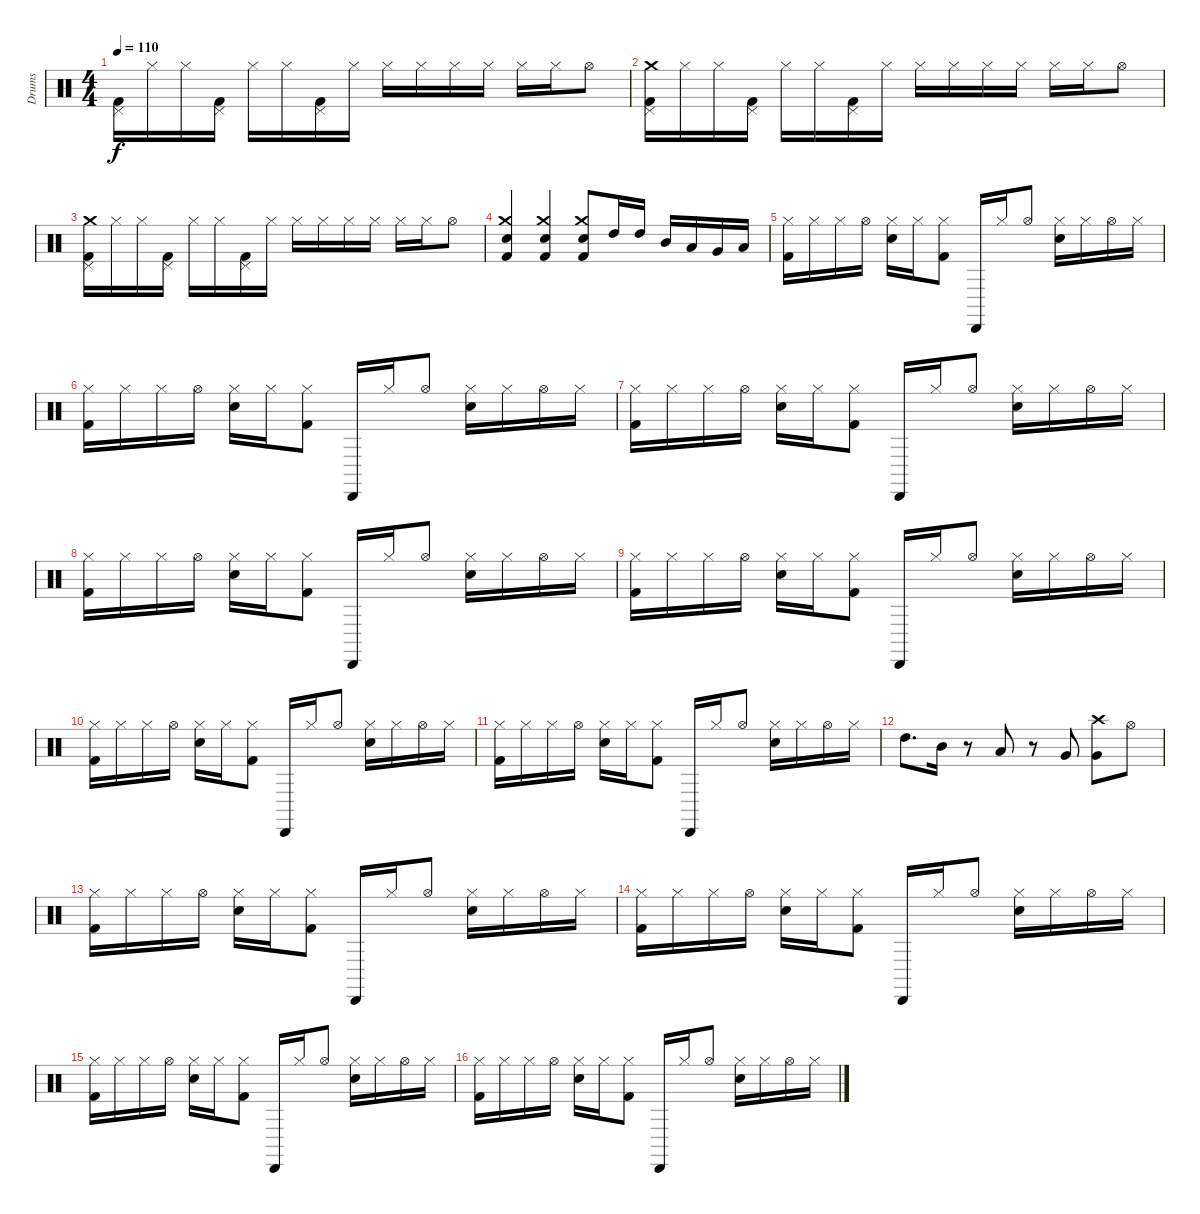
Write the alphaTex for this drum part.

\track ("Drums" "Drums") {instrument percussion}
\staff {score}
\articulation defaults
\ts (4 4)
\tempo 110
\clef neutral
\ks c
("Kick (hit) 2" "Pedal Hi-Hat (hit)").16{dy f} "Hi-Hat (closed)".16 "Hi-Hat (closed)".16 ("Kick (hit) 2" "Pedal Hi-Hat (hit)").16 "Hi-Hat (closed)".16 "Hi-Hat (closed)".16 ("Kick (hit) 2" "Pedal Hi-Hat (hit)").16 "Hi-Hat (closed)".16 "Hi-Hat (closed)".16 "Hi-Hat (closed)".16 "Hi-Hat (closed)".16 "Hi-Hat (closed)".16 "Hi-Hat (closed)".16 "Hi-Hat (closed)".16 "Hi-Hat (open)".8 |
("Kick (hit) 2" "Pedal Hi-Hat (hit)" "Crash medium (hit)").16 "Hi-Hat (closed)".16 "Hi-Hat (closed)".16 ("Kick (hit) 2" "Pedal Hi-Hat (hit)").16 "Hi-Hat (closed)".16 "Hi-Hat (closed)".16 ("Kick (hit) 2" "Pedal Hi-Hat (hit)").16 "Hi-Hat (closed)".16 "Hi-Hat (closed)".16 "Hi-Hat (closed)".16 "Hi-Hat (closed)".16 "Hi-Hat (closed)".16 "Hi-Hat (closed)".16 "Hi-Hat (closed)".16 "Hi-Hat (open)".8 |
("Kick (hit) 2" "Pedal Hi-Hat (hit)" "Crash medium (hit)").16 "Hi-Hat (closed)".16 "Hi-Hat (closed)".16 ("Kick (hit) 2" "Pedal Hi-Hat (hit)").16 "Hi-Hat (closed)".16 "Hi-Hat (closed)".16 ("Kick (hit) 2" "Pedal Hi-Hat (hit)").16 "Hi-Hat (closed)".16 "Hi-Hat (closed)".16 "Hi-Hat (closed)".16 "Hi-Hat (closed)".16 "Hi-Hat (closed)".16 "Hi-Hat (closed)".16 "Hi-Hat (closed)".16 "Hi-Hat (open)".8 |
("Kick (hit) 2" "Electric Snare (hit)" "Crash medium (hit)").4 ("Kick (hit) 2" "Electric Snare (hit)" "Crash medium (hit)").4 ("Kick (hit) 2" "Electric Snare (hit)" "Crash medium (hit)").8 "High Tom (hit)".16 "High Tom (hit)".16 "Mid Tom (hit)".16 "Low Tom (hit)".16 "Very Low Tom (hit)".16 "Low Floor Tom (hit)".16 |
("Kick (hit) 2" "Hi-Hat (closed)").16 "Hi-Hat (closed)".16 "Hi-Hat (closed)".16 "Hi-Hat (open)".16 ("Snare (hit) 2" "Hi-Hat (closed)").16 "Hi-Hat (closed)".16 ("Kick (hit) 2" "Hi-Hat (closed)").8 "Cabasa (hit)".16 "Hi-Hat (closed)".16 "Hi-Hat (open)".8 ("Snare (hit) 2" "Hi-Hat (closed)").16 "Hi-Hat (closed)".16 "Hi-Hat (open)".16 "Hi-Hat (closed)".16 |
("Kick (hit) 2" "Hi-Hat (closed)").16 "Hi-Hat (closed)".16 "Hi-Hat (closed)".16 "Hi-Hat (open)".16 ("Snare (hit) 2" "Hi-Hat (closed)").16 "Hi-Hat (closed)".16 ("Kick (hit) 2" "Hi-Hat (closed)").8 "Cabasa (hit)".16 "Hi-Hat (closed)".16 "Hi-Hat (open)".8 ("Snare (hit) 2" "Hi-Hat (closed)").16 "Hi-Hat (closed)".16 "Hi-Hat (open)".16 "Hi-Hat (closed)".16 |
("Kick (hit) 2" "Hi-Hat (closed)").16 "Hi-Hat (closed)".16 "Hi-Hat (closed)".16 "Hi-Hat (open)".16 ("Snare (hit) 2" "Hi-Hat (closed)").16 "Hi-Hat (closed)".16 ("Kick (hit) 2" "Hi-Hat (closed)").8 "Cabasa (hit)".16 "Hi-Hat (closed)".16 "Hi-Hat (open)".8 ("Snare (hit) 2" "Hi-Hat (closed)").16 "Hi-Hat (closed)".16 "Hi-Hat (open)".16 "Hi-Hat (closed)".16 |
("Kick (hit) 2" "Hi-Hat (closed)").16 "Hi-Hat (closed)".16 "Hi-Hat (closed)".16 "Hi-Hat (open)".16 ("Snare (hit) 2" "Hi-Hat (closed)").16 "Hi-Hat (closed)".16 ("Kick (hit) 2" "Hi-Hat (closed)").8 "Cabasa (hit)".16 "Hi-Hat (closed)".16 "Hi-Hat (open)".8 ("Snare (hit) 2" "Hi-Hat (closed)").16 "Hi-Hat (closed)".16 "Hi-Hat (open)".16 "Hi-Hat (closed)".16 |
("Kick (hit) 2" "Hi-Hat (closed)").16 "Hi-Hat (closed)".16 "Hi-Hat (closed)".16 "Hi-Hat (open)".16 ("Snare (hit) 2" "Hi-Hat (closed)").16 "Hi-Hat (closed)".16 ("Kick (hit) 2" "Hi-Hat (closed)").8 "Cabasa (hit)".16 "Hi-Hat (closed)".16 "Hi-Hat (open)".8 ("Snare (hit) 2" "Hi-Hat (closed)").16 "Hi-Hat (closed)".16 "Hi-Hat (open)".16 "Hi-Hat (closed)".16 |
("Kick (hit) 2" "Hi-Hat (closed)").16 "Hi-Hat (closed)".16 "Hi-Hat (closed)".16 "Hi-Hat (open)".16 ("Snare (hit) 2" "Hi-Hat (closed)").16 "Hi-Hat (closed)".16 ("Kick (hit) 2" "Hi-Hat (closed)").8 "Cabasa (hit)".16 "Hi-Hat (closed)".16 "Hi-Hat (open)".8 ("Snare (hit) 2" "Hi-Hat (closed)").16 "Hi-Hat (closed)".16 "Hi-Hat (open)".16 "Hi-Hat (closed)".16 |
("Kick (hit) 2" "Hi-Hat (closed)").16 "Hi-Hat (closed)".16 "Hi-Hat (closed)".16 "Hi-Hat (open)".16 ("Snare (hit) 2" "Hi-Hat (closed)").16 "Hi-Hat (closed)".16 ("Kick (hit) 2" "Hi-Hat (closed)").8 "Cabasa (hit)".16 "Hi-Hat (closed)".16 "Hi-Hat (open)".8 ("Snare (hit) 2" "Hi-Hat (closed)").16 "Hi-Hat (closed)".16 "Hi-Hat (open)".16 "Hi-Hat (closed)".16 |
"High Tom (hit)".8{d} "Mid Tom (hit)".16 r.8 "Low Tom (hit)".8 r.8 "Very Low Tom (hit)".8 ("Very Low Tom (hit)" "Crash high (hit)").8 "Hi-Hat (open)".8 |
("Kick (hit) 2" "Hi-Hat (closed)").16 "Hi-Hat (closed)".16 "Hi-Hat (closed)".16 "Hi-Hat (open)".16 ("Snare (hit) 2" "Hi-Hat (closed)").16 "Hi-Hat (closed)".16 ("Kick (hit) 2" "Hi-Hat (closed)").8 "Cabasa (hit)".16 "Hi-Hat (closed)".16 "Hi-Hat (open)".8 ("Snare (hit) 2" "Hi-Hat (closed)").16 "Hi-Hat (closed)".16 "Hi-Hat (open)".16 "Hi-Hat (closed)".16 |
("Kick (hit) 2" "Hi-Hat (closed)").16 "Hi-Hat (closed)".16 "Hi-Hat (closed)".16 "Hi-Hat (open)".16 ("Snare (hit) 2" "Hi-Hat (closed)").16 "Hi-Hat (closed)".16 ("Kick (hit) 2" "Hi-Hat (closed)").8 "Cabasa (hit)".16 "Hi-Hat (closed)".16 "Hi-Hat (open)".8 ("Snare (hit) 2" "Hi-Hat (closed)").16 "Hi-Hat (closed)".16 "Hi-Hat (open)".16 "Hi-Hat (closed)".16 |
("Kick (hit) 2" "Hi-Hat (closed)").16 "Hi-Hat (closed)".16 "Hi-Hat (closed)".16 "Hi-Hat (open)".16 ("Snare (hit) 2" "Hi-Hat (closed)").16 "Hi-Hat (closed)".16 ("Kick (hit) 2" "Hi-Hat (closed)").8 "Cabasa (hit)".16 "Hi-Hat (closed)".16 "Hi-Hat (open)".8 ("Snare (hit) 2" "Hi-Hat (closed)").16 "Hi-Hat (closed)".16 "Hi-Hat (open)".16 "Hi-Hat (closed)".16 |
("Kick (hit) 2" "Hi-Hat (closed)").16 "Hi-Hat (closed)".16 "Hi-Hat (closed)".16 "Hi-Hat (open)".16 ("Snare (hit) 2" "Hi-Hat (closed)").16 "Hi-Hat (closed)".16 ("Kick (hit) 2" "Hi-Hat (closed)").8 "Cabasa (hit)".16 "Hi-Hat (closed)".16 "Hi-Hat (open)".8 ("Snare (hit) 2" "Hi-Hat (closed)").16 "Hi-Hat (closed)".16 "Hi-Hat (open)".16 "Hi-Hat (closed)".16
